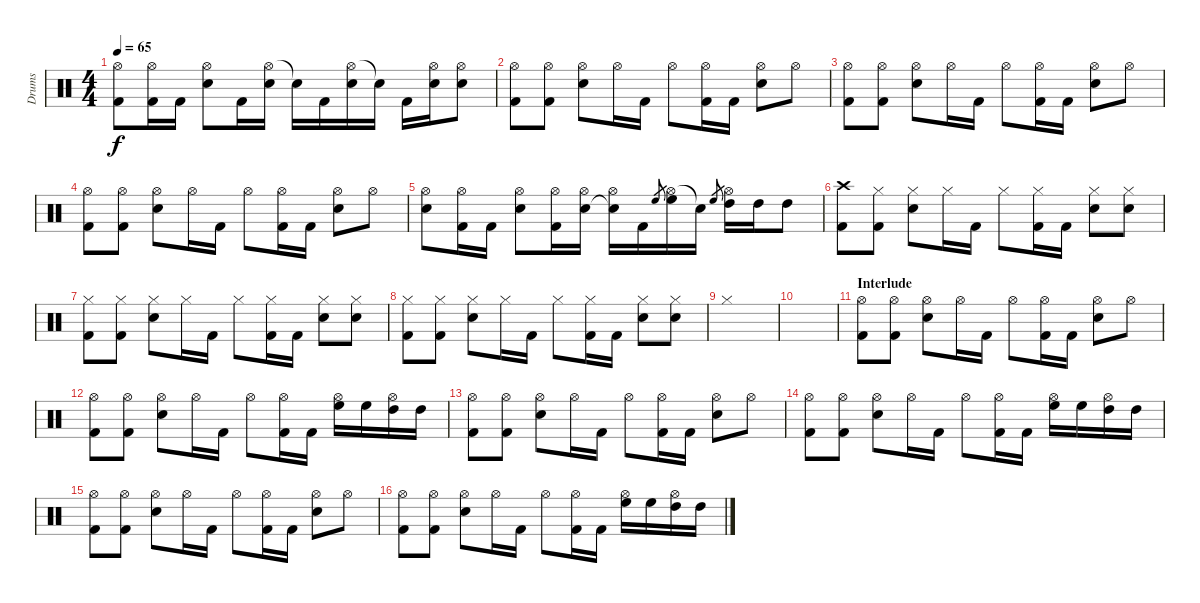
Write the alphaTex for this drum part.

\track ("Drums" "Drums") {instrument percussion}
\staff {score}
\articulation defaults
\ts (4 4)
\tempo 65
\clef neutral
\ks c
("Hi-Hat (open)" "Kick (hit) 2").8{dy f} ("Hi-Hat (open)" "Kick (hit) 2").16 "Kick (hit) 2".16 ("Hi-Hat (open)" "Snare (hit) 2").8 "Kick (hit) 2".16 ("Hi-Hat (open)" "Snare (hit) 2").16 "Snare (hit)"{t}.16 "Kick (hit) 2".16 ("Hi-Hat (open)" "Snare (hit) 2").16 "Snare (hit)"{t}.16 "Kick (hit) 2".16 ("Hi-Hat (open)" "Snare (hit) 2").16 ("Hi-Hat (open)" "Snare (hit) 2").8 |
("Hi-Hat (open)" "Kick (hit) 2").8 ("Hi-Hat (open)" "Kick (hit) 2").8 ("Hi-Hat (open)" "Snare (hit) 2").8 "Hi-Hat (open)".16 "Kick (hit) 2".16 "Hi-Hat (open)".8 ("Hi-Hat (open)" "Kick (hit) 2").16 "Kick (hit) 2".16 ("Hi-Hat (open)" "Snare (hit) 2").8 "Hi-Hat (open)".8 |
("Hi-Hat (open)" "Kick (hit) 2").8 ("Hi-Hat (open)" "Kick (hit) 2").8 ("Hi-Hat (open)" "Snare (hit) 2").8 "Hi-Hat (open)".16 "Kick (hit) 2".16 "Hi-Hat (open)".8 ("Hi-Hat (open)" "Kick (hit) 2").16 "Kick (hit) 2".16 ("Hi-Hat (open)" "Snare (hit) 2").8 "Hi-Hat (open)".8 |
("Hi-Hat (open)" "Kick (hit) 2").8 ("Hi-Hat (open)" "Kick (hit) 2").8 ("Hi-Hat (open)" "Snare (hit) 2").8 "Hi-Hat (open)".16 "Kick (hit) 2".16 "Hi-Hat (open)".8 ("Hi-Hat (open)" "Kick (hit) 2").16 "Kick (hit) 2".16 ("Hi-Hat (open)" "Snare (hit) 2").8 "Hi-Hat (open)".8 |
("Hi-Hat (open)" "Snare (hit) 2").8 ("Hi-Hat (open)" "Kick (hit) 2").16 "Kick (hit) 2".16 ("Hi-Hat (open)" "Snare (hit) 2").8 ("Hi-Hat (open)" "Kick (hit) 2").16 ("Hi-Hat (open)" "Snare (hit) 2").16 ("Hi-Hat (open)" "Snare (hit)"{t}).16 "Kick (hit) 2".16 "High Floor Tom (hit)".8{gr} ("Hi-Hat (open)" "High Floor Tom (hit)").16 "Snare (hit)"{t}.16 "High Floor Tom (hit)".8{gr} ("Hi-Hat (open)" "High Tom (hit)").16 "High Tom (hit)".16 "High Tom (hit)".8 |
("Crash high (hit)" "Kick (hit) 2").8 ("Hi-Hat (closed)" "Kick (hit) 2").8 ("Hi-Hat (closed)" "Snare (hit) 2").8 "Hi-Hat (closed)".16 "Kick (hit) 2".16 "Hi-Hat (closed)".8 ("Hi-Hat (closed)" "Kick (hit) 2").16 "Kick (hit) 2".16 ("Hi-Hat (closed)" "Snare (hit) 2").8 ("Hi-Hat (closed)" "Snare (hit) 2").8 |
("Hi-Hat (closed)" "Kick (hit) 2").8 ("Hi-Hat (closed)" "Kick (hit) 2").8 ("Hi-Hat (closed)" "Snare (hit) 2").8 "Hi-Hat (closed)".16 "Kick (hit) 2".16 "Hi-Hat (closed)".8 ("Hi-Hat (closed)" "Kick (hit) 2").16 "Kick (hit) 2".16 ("Hi-Hat (closed)" "Snare (hit) 2").8 ("Hi-Hat (closed)" "Snare (hit) 2").8 |
("Hi-Hat (closed)" "Kick (hit) 2").8 ("Hi-Hat (closed)" "Kick (hit) 2").8 ("Hi-Hat (closed)" "Snare (hit) 2").8 "Hi-Hat (closed)".16 "Kick (hit) 2".16 "Hi-Hat (closed)".8 ("Hi-Hat (closed)" "Kick (hit) 2").16 "Kick (hit) 2".16 ("Hi-Hat (closed)" "Snare (hit) 2").8 ("Hi-Hat (closed)" "Snare (hit) 2").8 |
"Hi-Hat (closed)".1 |
|
\section ("" "Interlude")
("Hi-Hat (open)" "Kick (hit) 2").8 ("Hi-Hat (open)" "Kick (hit) 2").8 ("Hi-Hat (open)" "Snare (hit) 2").8 "Hi-Hat (open)".16 "Kick (hit) 2".16 "Hi-Hat (open)".8 ("Hi-Hat (open)" "Kick (hit) 2").16 "Kick (hit) 2".16 ("Hi-Hat (open)" "Snare (hit) 2").8 "Hi-Hat (open)".8 |
("Hi-Hat (open)" "Kick (hit) 2").8 ("Hi-Hat (open)" "Kick (hit) 2").8 ("Hi-Hat (open)" "Snare (hit) 2").8 "Hi-Hat (open)".16 "Kick (hit) 2".16 "Hi-Hat (open)".8 ("Hi-Hat (open)" "Kick (hit) 2").16 "Kick (hit) 2".16 ("Hi-Hat (open)" "High Floor Tom (hit)").16 "High Floor Tom (hit)".16 ("Hi-Hat (open)" "High Tom (hit)").16 "High Tom (hit)".16 |
("Hi-Hat (open)" "Kick (hit) 2").8 ("Hi-Hat (open)" "Kick (hit) 2").8 ("Hi-Hat (open)" "Snare (hit) 2").8 "Hi-Hat (open)".16 "Kick (hit) 2".16 "Hi-Hat (open)".8 ("Hi-Hat (open)" "Kick (hit) 2").16 "Kick (hit) 2".16 ("Hi-Hat (open)" "Snare (hit) 2").8 "Hi-Hat (open)".8 |
("Hi-Hat (open)" "Kick (hit) 2").8 ("Hi-Hat (open)" "Kick (hit) 2").8 ("Hi-Hat (open)" "Snare (hit) 2").8 "Hi-Hat (open)".16 "Kick (hit) 2".16 "Hi-Hat (open)".8 ("Hi-Hat (open)" "Kick (hit) 2").16 "Kick (hit) 2".16 ("Hi-Hat (open)" "High Floor Tom (hit)").16 "High Floor Tom (hit)".16 ("Hi-Hat (open)" "High Tom (hit)").16 "High Tom (hit)".16 |
("Hi-Hat (open)" "Kick (hit) 2").8 ("Hi-Hat (open)" "Kick (hit) 2").8 ("Hi-Hat (open)" "Snare (hit) 2").8 "Hi-Hat (open)".16 "Kick (hit) 2".16 "Hi-Hat (open)".8 ("Hi-Hat (open)" "Kick (hit) 2").16 "Kick (hit) 2".16 ("Hi-Hat (open)" "Snare (hit) 2").8 "Hi-Hat (open)".8 |
("Hi-Hat (open)" "Kick (hit) 2").8 ("Hi-Hat (open)" "Kick (hit) 2").8 ("Hi-Hat (open)" "Snare (hit) 2").8 "Hi-Hat (open)".16 "Kick (hit) 2".16 "Hi-Hat (open)".8 ("Hi-Hat (open)" "Kick (hit) 2").16 "Kick (hit) 2".16 ("Hi-Hat (open)" "High Floor Tom (hit)").16 "High Floor Tom (hit)".16 ("Hi-Hat (open)" "High Tom (hit)").16 "High Tom (hit)".16
